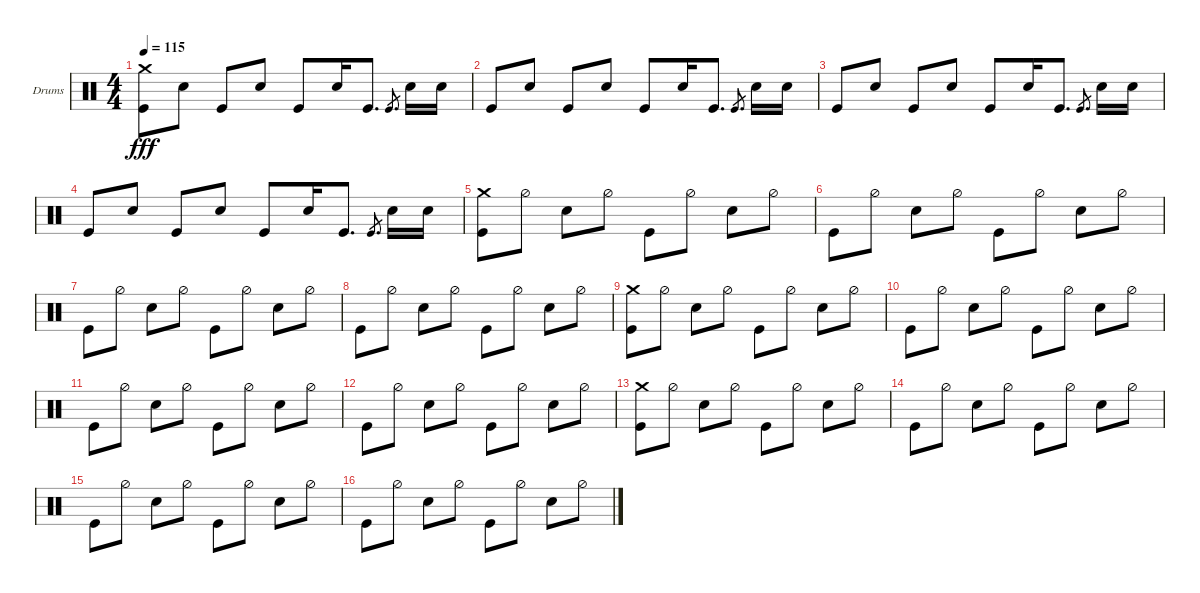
\defaultSystemsLayout 4
\bracketExtendMode groupsimilarinstruments
\firstSystemTrackNameOrientation horizontal
\otherSystemsTrackNameOrientation horizontal
\track ("Drumkit" "Drums") {instrument percussion}
\staff {score}
\articulation defaults
\ts (4 4)
\tempo 115
\clef neutral
\ks c
("Kick (hit)" "Crash medium (hit)").8{dy fff} "Snare (hit) 2".8 "Kick (hit)".8 "Snare (hit) 2".8 "Kick (hit)".8 "Snare (hit) 2".16 "Kick (hit)".8{d} "Kick (hit)".8{d gr} "Snare (hit) 2".16 "Snare (hit) 2".16 |
"Kick (hit)".8 "Snare (hit) 2".8 "Kick (hit)".8 "Snare (hit) 2".8 "Kick (hit)".8 "Snare (hit) 2".16 "Kick (hit)".8{d} "Kick (hit)".8{d gr} "Snare (hit) 2".16 "Snare (hit) 2".16 |
"Kick (hit)".8 "Snare (hit) 2".8 "Kick (hit)".8 "Snare (hit) 2".8 "Kick (hit)".8 "Snare (hit) 2".16 "Kick (hit)".8{d} "Kick (hit)".8{d gr} "Snare (hit) 2".16 "Snare (hit) 2".16 |
"Kick (hit)".8 "Snare (hit) 2".8 "Kick (hit)".8 "Snare (hit) 2".8 "Kick (hit)".8 "Snare (hit) 2".16 "Kick (hit)".8{d} "Kick (hit)".8{d gr} "Snare (hit) 2".16 "Snare (hit) 2".16 |
("Kick (hit)" "Crash medium (hit)").8 "Hi-Hat (half)".8 "Snare (hit) 2".8 "Hi-Hat (half)".8 "Kick (hit)".8 "Hi-Hat (half)".8 "Snare (hit) 2".8 "Hi-Hat (half)".8 |
"Kick (hit)".8 "Hi-Hat (half)".8 "Snare (hit) 2".8 "Hi-Hat (half)".8 "Kick (hit)".8 "Hi-Hat (half)".8 "Snare (hit) 2".8 "Hi-Hat (half)".8 |
"Kick (hit)".8 "Hi-Hat (half)".8 "Snare (hit) 2".8 "Hi-Hat (half)".8 "Kick (hit)".8 "Hi-Hat (half)".8 "Snare (hit) 2".8 "Hi-Hat (half)".8 |
"Kick (hit)".8 "Hi-Hat (half)".8 "Snare (hit) 2".8 "Hi-Hat (half)".8 "Kick (hit)".8 "Hi-Hat (half)".8 "Snare (hit) 2".8 "Hi-Hat (half)".8 |
("Kick (hit)" "Crash medium (hit)").8 "Hi-Hat (half)".8 "Snare (hit) 2".8 "Hi-Hat (half)".8 "Kick (hit)".8 "Hi-Hat (half)".8 "Snare (hit) 2".8 "Hi-Hat (half)".8 |
"Kick (hit)".8 "Hi-Hat (half)".8 "Snare (hit) 2".8 "Hi-Hat (half)".8 "Kick (hit)".8 "Hi-Hat (half)".8 "Snare (hit) 2".8 "Hi-Hat (half)".8 |
"Kick (hit)".8 "Hi-Hat (half)".8 "Snare (hit) 2".8 "Hi-Hat (half)".8 "Kick (hit)".8 "Hi-Hat (half)".8 "Snare (hit) 2".8 "Hi-Hat (half)".8 |
"Kick (hit)".8 "Hi-Hat (half)".8 "Snare (hit) 2".8 "Hi-Hat (half)".8 "Kick (hit)".8 "Hi-Hat (half)".8 "Snare (hit) 2".8 "Hi-Hat (half)".8 |
("Kick (hit)" "Crash medium (hit)").8 "Hi-Hat (half)".8 "Snare (hit) 2".8 "Hi-Hat (half)".8 "Kick (hit)".8 "Hi-Hat (half)".8 "Snare (hit) 2".8 "Hi-Hat (half)".8 |
"Kick (hit)".8 "Hi-Hat (half)".8 "Snare (hit) 2".8 "Hi-Hat (half)".8 "Kick (hit)".8 "Hi-Hat (half)".8 "Snare (hit) 2".8 "Hi-Hat (half)".8 |
"Kick (hit)".8 "Hi-Hat (half)".8 "Snare (hit) 2".8 "Hi-Hat (half)".8 "Kick (hit)".8 "Hi-Hat (half)".8 "Snare (hit) 2".8 "Hi-Hat (half)".8 |
"Kick (hit)".8 "Hi-Hat (half)".8 "Snare (hit) 2".8 "Hi-Hat (half)".8 "Kick (hit)".8 "Hi-Hat (half)".8 "Snare (hit) 2".8 "Hi-Hat (half)".8
